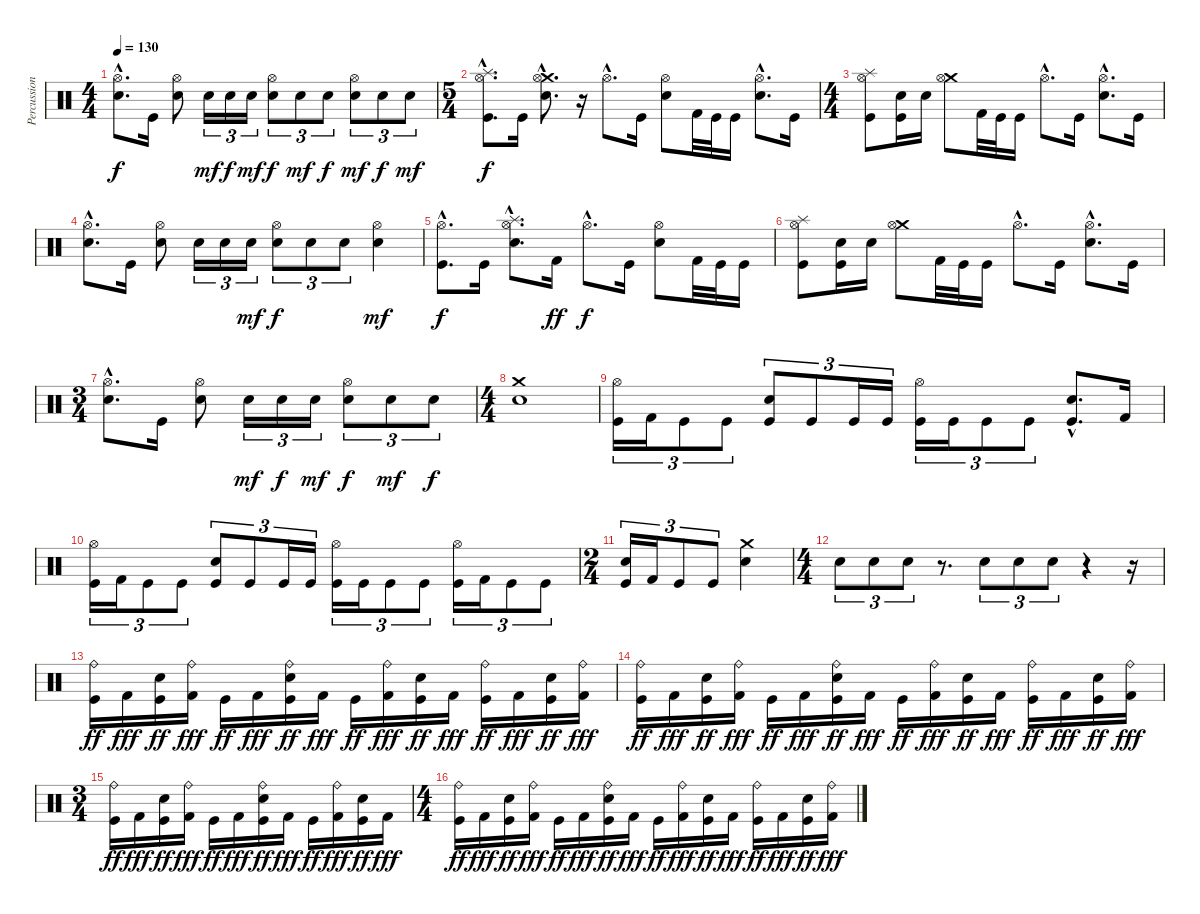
\track ("Percussioni" "Percussion") {instrument percussion}
\staff {score}
\articulation defaults
\ts (4 4)
\tempo 130
\clef neutral
\ks c
("Hi-Hat (open)"{hac} "Snare (hit) 2"{hac}).8{d dy f} "Kick (hit)".16 ("Hi-Hat (open)" "Snare (hit) 2").8 "Snare (hit) 2".16{tu (3 2) dy mf} "Snare (hit) 2".16{tu (3 2) dy f} "Snare (hit) 2".16{tu (3 2) dy mf} ("Hi-Hat (open)" "Snare (hit) 2").8{tu (3 2) dy f} "Snare (hit) 2".8{tu (3 2) dy mf} "Snare (hit) 2".8{tu (3 2) dy f} ("Hi-Hat (open)" "Snare (hit) 2").8{tu (3 2) dy mf} "Snare (hit) 2".8{tu (3 2) dy f} "Snare (hit) 2".8{tu (3 2) dy mf} |
\ts (5 4)
("Splash (hit)"{hac} "Hi-Hat (open)"{hac} "Kick (hit)"{hac}).8{d dy f} "Kick (hit)".16 ("Crash medium (hit)"{hac} "Hi-Hat (open)"{hac} "Snare (hit) 2"{hac}).8{d} r.16 "Hi-Hat (open)"{hac}.8{d} "Kick (hit)".16 ("Hi-Hat (open)" "Snare (hit) 2").8 "Kick (hit) 2".32 "Kick (hit)".32 "Kick (hit)".16 ("Hi-Hat (open)"{hac} "Snare (hit) 2"{hac}).8{d} "Kick (hit)".16 |
\ts (4 4)
("Splash (hit)" "Hi-Hat (open)" "Kick (hit)").8 ("Snare (hit) 2" "Kick (hit)").16 "Snare (hit) 2".16 ("Crash medium (hit)" "Hi-Hat (open)").8 "Kick (hit) 2".32 "Kick (hit)".32 "Kick (hit)".16 "Hi-Hat (open)"{hac}.8{d} "Kick (hit)".16 ("Hi-Hat (open)"{hac} "Snare (hit) 2"{hac}).8{d} "Kick (hit)".16 |
("Hi-Hat (open)"{hac} "Snare (hit) 2"{hac}).8{d} "Kick (hit)".16 ("Hi-Hat (open)" "Snare (hit) 2").8 "Snare (hit) 2".16{tu (3 2)} "Snare (hit) 2".16{tu (3 2)} "Snare (hit) 2".16{tu (3 2) dy mf} ("Hi-Hat (open)" "Snare (hit) 2").8{tu (3 2) dy f} "Snare (hit) 2".8{tu (3 2)} "Snare (hit) 2".8{tu (3 2)} ("Hi-Hat (open)" "Snare (hit) 2").4{dy mf} |
("Hi-Hat (open)"{hac} "Kick (hit)"{hac}).8{d dy f} "Kick (hit)".16 ("Splash (hit)"{hac} "Hi-Hat (open)"{hac} "Snare (hit) 2"{hac}).8{d} "Kick (hit) 2".16{dy ff} "Hi-Hat (open)"{hac}.8{d dy f} "Kick (hit)".16 ("Hi-Hat (open)" "Snare (hit) 2").8 "Kick (hit) 2".32 "Kick (hit)".32 "Kick (hit)".16 |
("Splash (hit)" "Hi-Hat (open)" "Kick (hit)").8 ("Snare (hit) 2" "Kick (hit)").16 "Snare (hit) 2".16 ("Crash medium (hit)" "Hi-Hat (open)").8 "Kick (hit) 2".32 "Kick (hit)".32 "Kick (hit)".16 "Hi-Hat (open)"{hac}.8{d} "Kick (hit)".16 ("Hi-Hat (open)"{hac} "Snare (hit) 2"{hac}).8{d} "Kick (hit)".16 |
\ts (3 4)
("Hi-Hat (open)"{hac} "Snare (hit) 2"{hac}).8{d} "Kick (hit)".16 ("Hi-Hat (open)" "Snare (hit) 2").8 "Snare (hit) 2".16{tu (3 2) dy mf} "Snare (hit) 2".16{tu (3 2) dy f} "Snare (hit) 2".16{tu (3 2) dy mf} ("Hi-Hat (open)" "Snare (hit) 2").8{tu (3 2) dy f} "Snare (hit) 2".8{tu (3 2) dy mf} "Snare (hit) 2".8{tu (3 2) dy f} |
\ts (4 4)
("Crash medium (hit)" "Snare (hit) 2").1 |
("Hi-Hat (open)" "Kick (hit)").16{tu (3 2)} "Kick (hit) 2".16{tu (3 2)} "Kick (hit)".8{tu (3 2)} "Kick (hit)".8{tu (3 2)} ("Snare (hit) 2" "Kick (hit)").8{tu (3 2)} "Kick (hit)".8{tu (3 2)} "Kick (hit)".16{tu (3 2)} "Kick (hit)".16{tu (3 2)} ("Hi-Hat (open)" "Kick (hit)").16{tu (3 2)} "Kick (hit)".16{tu (3 2)} "Kick (hit)".8{tu (3 2)} "Kick (hit)".8{tu (3 2)} ("Snare (hit) 2"{hac} "Kick (hit)"{hac}).8{d} "Kick (hit) 2".16 |
("Hi-Hat (open)" "Kick (hit)").16{tu (3 2)} "Kick (hit) 2".16{tu (3 2)} "Kick (hit)".8{tu (3 2)} "Kick (hit)".8{tu (3 2)} ("Snare (hit) 2" "Kick (hit)").8{tu (3 2)} "Kick (hit)".8{tu (3 2)} "Kick (hit)".16{tu (3 2)} "Kick (hit)".16{tu (3 2)} ("Hi-Hat (open)" "Kick (hit)").16{tu (3 2)} "Kick (hit)".16{tu (3 2)} "Kick (hit)".8{tu (3 2)} "Kick (hit)".8{tu (3 2)} ("Hi-Hat (open)" "Kick (hit)").16{tu (3 2)} "Kick (hit) 2".16{tu (3 2)} "Kick (hit)".8{tu (3 2)} "Kick (hit)".8{tu (3 2)} |
\ts (2 4)
("Snare (hit) 2" "Kick (hit)").16{tu (3 2)} "Kick (hit) 2".16{tu (3 2)} "Kick (hit)".8{tu (3 2)} "Kick (hit)".8{tu (3 2)} ("Crash medium (hit)" "Snare (hit) 2").4 |
\ts (4 4)
"Snare (hit) 2".8{tu (3 2)} "Snare (hit) 2".8{tu (3 2)} "Snare (hit) 2".8{tu (3 2)} r.8{d} "Snare (hit) 2".8{tu (3 2)} "Snare (hit) 2".8{tu (3 2)} "Snare (hit) 2".8{tu (3 2)} r.4 r.16 |
("Ride (bell)" "Kick (hit)").16{dy ff} "Kick (hit) 2".16{dy fff} ("Snare (hit) 2" "Kick (hit)").16{dy ff} ("Ride (bell)" "Kick (hit) 2").16{dy fff} "Kick (hit)".16{dy ff} "Kick (hit) 2".16{dy fff} ("Ride (bell)" "Snare (hit) 2" "Kick (hit)").16{dy ff} "Kick (hit) 2".16{dy fff} "Kick (hit)".16{dy ff} ("Ride (bell)" "Kick (hit) 2").16{dy fff} ("Snare (hit) 2" "Kick (hit)").16{dy ff} "Kick (hit) 2".16{dy fff} ("Ride (bell)" "Kick (hit)").16{dy ff} "Kick (hit) 2".16{dy fff} ("Snare (hit) 2" "Kick (hit)").16{dy ff} ("Ride (bell)" "Kick (hit) 2").16{dy fff} |
("Ride (bell)" "Kick (hit)").16{dy ff} "Kick (hit) 2".16{dy fff} ("Snare (hit) 2" "Kick (hit)").16{dy ff} ("Ride (bell)" "Kick (hit) 2").16{dy fff} "Kick (hit)".16{dy ff} "Kick (hit) 2".16{dy fff} ("Ride (bell)" "Snare (hit) 2" "Kick (hit)").16{dy ff} "Kick (hit) 2".16{dy fff} "Kick (hit)".16{dy ff} ("Ride (bell)" "Kick (hit) 2").16{dy fff} ("Snare (hit) 2" "Kick (hit)").16{dy ff} "Kick (hit) 2".16{dy fff} ("Ride (bell)" "Kick (hit)").16{dy ff} "Kick (hit) 2".16{dy fff} ("Snare (hit) 2" "Kick (hit)").16{dy ff} ("Ride (bell)" "Kick (hit) 2").16{dy fff} |
\ts (3 4)
("Ride (bell)" "Kick (hit)").16{dy ff} "Kick (hit) 2".16{dy fff} ("Snare (hit) 2" "Kick (hit)").16{dy ff} ("Ride (bell)" "Kick (hit) 2").16{dy fff} "Kick (hit)".16{dy ff} "Kick (hit) 2".16{dy fff} ("Ride (bell)" "Snare (hit) 2" "Kick (hit)").16{dy ff} "Kick (hit) 2".16{dy fff} "Kick (hit)".16{dy ff} ("Ride (bell)" "Kick (hit) 2").16{dy fff} ("Snare (hit) 2" "Kick (hit)").16{dy ff} "Kick (hit) 2".16{dy fff} |
\ts (4 4)
("Ride (bell)" "Kick (hit)").16{dy ff} "Kick (hit) 2".16{dy fff} ("Snare (hit) 2" "Kick (hit)").16{dy ff} ("Ride (bell)" "Kick (hit) 2").16{dy fff} "Kick (hit)".16{dy ff} "Kick (hit) 2".16{dy fff} ("Ride (bell)" "Snare (hit) 2" "Kick (hit)").16{dy ff} "Kick (hit) 2".16{dy fff} "Kick (hit)".16{dy ff} ("Ride (bell)" "Kick (hit) 2").16{dy fff} ("Snare (hit) 2" "Kick (hit)").16{dy ff} "Kick (hit) 2".16{dy fff} ("Ride (bell)" "Kick (hit)").16{dy ff} "Kick (hit) 2".16{dy fff} ("Snare (hit) 2" "Kick (hit)").16{dy ff} ("Ride (bell)" "Kick (hit) 2").16{dy fff}
